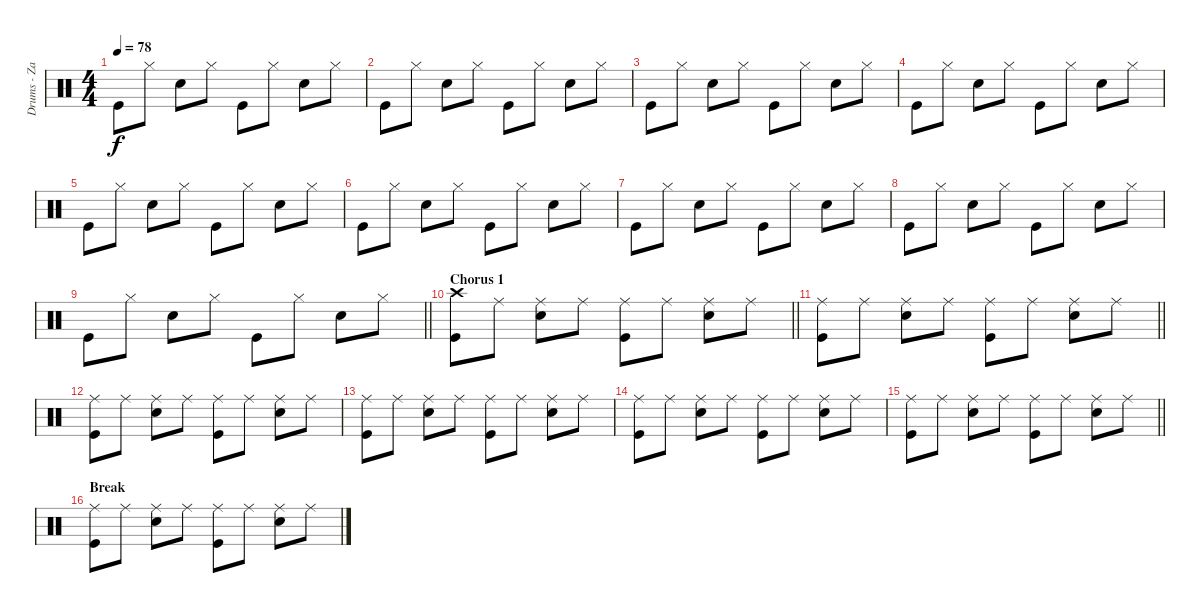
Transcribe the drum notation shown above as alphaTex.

\track ("Drums - Zakk Starkey" "Drums - Za") {instrument percussion}
\staff {score}
\articulation defaults
\ts (4 4)
\tempo 78
\clef neutral
\ks c "Kick (hit)".8{dy f} "Hi-Hat (closed)".8 "Snare (hit) 2".8 "Hi-Hat (closed)".8 "Kick (hit)".8 "Hi-Hat (closed)".8 "Snare (hit) 2".8 "Hi-Hat (closed)".8
|
"Kick (hit)".8 "Hi-Hat (closed)".8 "Snare (hit) 2".8 "Hi-Hat (closed)".8 "Kick (hit)".8 "Hi-Hat (closed)".8 "Snare (hit) 2".8 "Hi-Hat (closed)".8 |
"Kick (hit)".8 "Hi-Hat (closed)".8 "Snare (hit) 2".8 "Hi-Hat (closed)".8 "Kick (hit)".8 "Hi-Hat (closed)".8 "Snare (hit) 2".8 "Hi-Hat (closed)".8 |
"Kick (hit)".8 "Hi-Hat (closed)".8 "Snare (hit) 2".8 "Hi-Hat (closed)".8 "Kick (hit)".8 "Hi-Hat (closed)".8 "Snare (hit) 2".8 "Hi-Hat (closed)".8 |
"Kick (hit)".8 "Hi-Hat (closed)".8 "Snare (hit) 2".8 "Hi-Hat (closed)".8 "Kick (hit)".8 "Hi-Hat (closed)".8 "Snare (hit) 2".8 "Hi-Hat (closed)".8 |
"Kick (hit)".8 "Hi-Hat (closed)".8 "Snare (hit) 2".8 "Hi-Hat (closed)".8 "Kick (hit)".8 "Hi-Hat (closed)".8 "Snare (hit) 2".8 "Hi-Hat (closed)".8 |
"Kick (hit)".8 "Hi-Hat (closed)".8 "Snare (hit) 2".8 "Hi-Hat (closed)".8 "Kick (hit)".8 "Hi-Hat (closed)".8 "Snare (hit) 2".8 "Hi-Hat (closed)".8 |
"Kick (hit)".8 "Hi-Hat (closed)".8 "Snare (hit) 2".8 "Hi-Hat (closed)".8 "Kick (hit)".8 "Hi-Hat (closed)".8 "Snare (hit) 2".8 "Hi-Hat (closed)".8 |
\barLineRight lightlight "Kick (hit)".8 "Hi-Hat (closed)".8 "Snare (hit) 2".8 "Hi-Hat (closed)".8 "Kick (hit)".8 "Hi-Hat (closed)".8 "Snare (hit) 2".8 "Hi-Hat (closed)".8
|
\section ("" "Chorus 1")
\barLineRight lightlight
("Crash high (hit)" "Kick (hit)").8 "Ride (middle)".8 ("Ride (middle)" "Snare (hit) 2").8 "Ride (middle)".8 ("Ride (middle)" "Kick (hit)").8 "Ride (middle)".8 ("Ride (middle)" "Snare (hit) 2").8 "Ride (middle)".8 |
\barLineRight lightlight
("Ride (middle)" "Kick (hit)").8 "Ride (middle)".8 ("Ride (middle)" "Snare (hit) 2").8 "Ride (middle)".8 ("Ride (middle)" "Kick (hit)").8 "Ride (middle)".8 ("Ride (middle)" "Snare (hit) 2").8 "Ride (middle)".8 |
("Ride (middle)" "Kick (hit)").8 "Ride (middle)".8 ("Ride (middle)" "Snare (hit) 2").8 "Ride (middle)".8 ("Ride (middle)" "Kick (hit)").8 "Ride (middle)".8 ("Ride (middle)" "Snare (hit) 2").8 "Ride (middle)".8 |
("Ride (middle)" "Kick (hit)").8 "Ride (middle)".8 ("Ride (middle)" "Snare (hit) 2").8 "Ride (middle)".8 ("Ride (middle)" "Kick (hit)").8 "Ride (middle)".8 ("Ride (middle)" "Snare (hit) 2").8 "Ride (middle)".8 |
("Ride (middle)" "Kick (hit)").8 "Ride (middle)".8 ("Ride (middle)" "Snare (hit) 2").8 "Ride (middle)".8 ("Ride (middle)" "Kick (hit)").8 "Ride (middle)".8 ("Ride (middle)" "Snare (hit) 2").8 "Ride (middle)".8 |
\barLineRight lightlight
("Ride (middle)" "Kick (hit)").8 "Ride (middle)".8 ("Ride (middle)" "Snare (hit) 2").8 "Ride (middle)".8 ("Ride (middle)" "Kick (hit)").8 "Ride (middle)".8 ("Ride (middle)" "Snare (hit) 2").8 "Ride (middle)".8 |
\section ("" "Break")
("Ride (middle)" "Kick (hit)").8 "Ride (middle)".8 ("Ride (middle)" "Snare (hit) 2").8 "Ride (middle)".8 ("Ride (middle)" "Kick (hit)").8 "Ride (middle)".8 ("Ride (middle)" "Snare (hit) 2").8 "Ride (middle)".8
